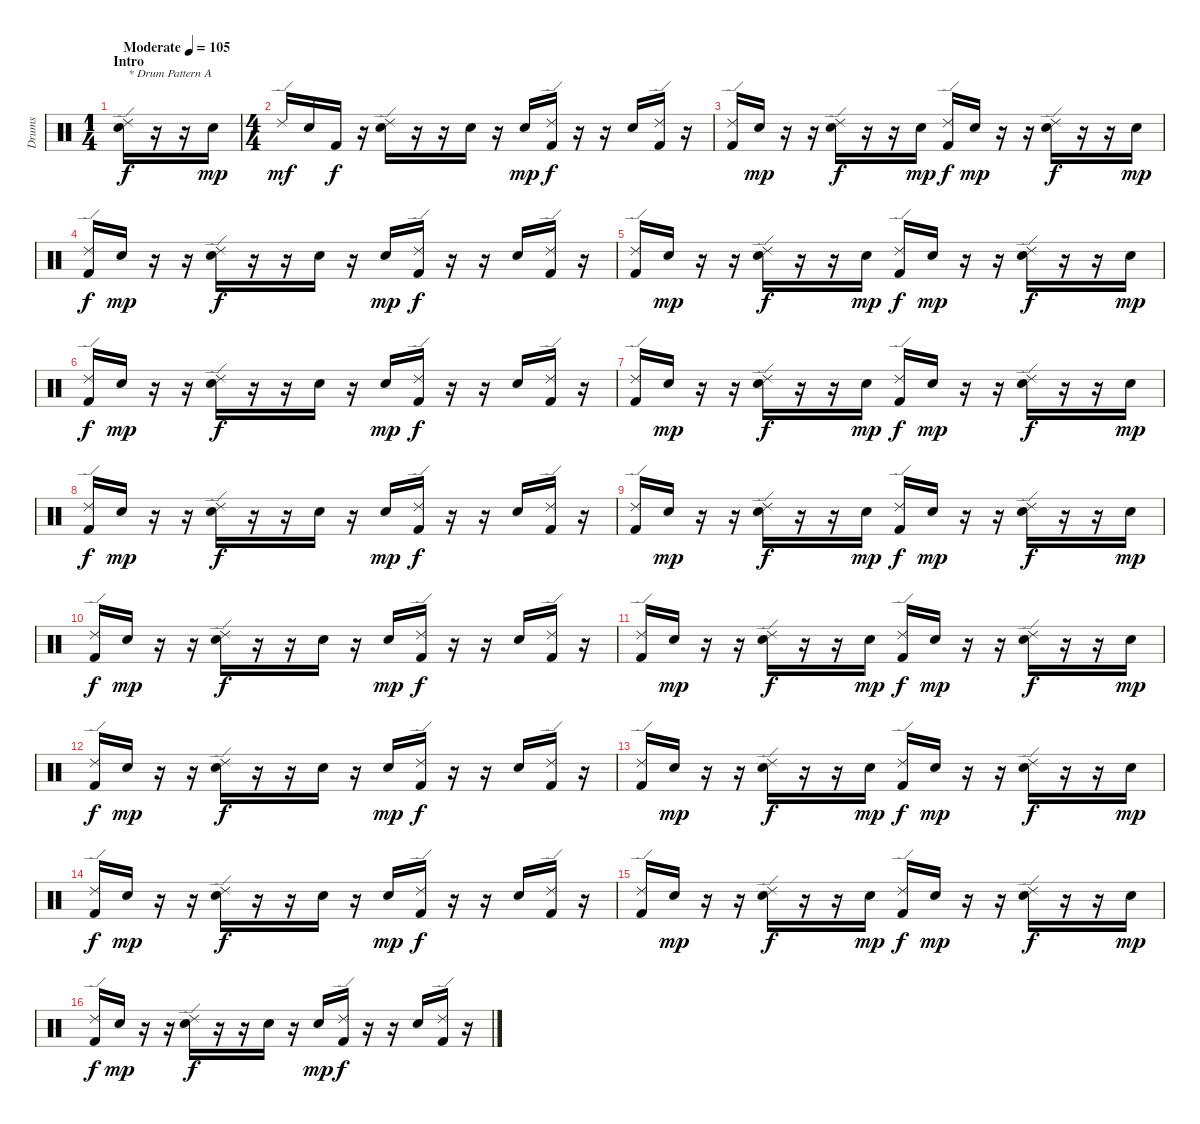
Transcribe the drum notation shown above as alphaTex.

\track ("Drums" "Drums") {instrument percussion}
\staff {score}
\articulation defaults
\ts (1 4)
\section ("" "Intro")
\tempo (105 "Moderate")
\clef neutral
\ks c
("Ride (edge) 2" "Electric Snare (hit)").16{txt "* Drum Pattern A" dy f balance 3} r.16 r.16 "Electric Snare (hit)".16{dy mp} |
\ts (4 4)
"Ride (edge) 2".16{dy mf} "Electric Snare (hit)".16 "Kick (hit) 2".16{dy f} r.16 ("Ride (edge) 2" "Electric Snare (hit)").16 r.16 r.16 "Electric Snare (hit)".16 r.16 "Electric Snare (hit)".16{dy mp} ("Ride (edge) 2" "Kick (hit) 2").16{dy f} r.16 r.16 "Electric Snare (hit)".16 ("Ride (edge) 2" "Kick (hit) 2").16 r.16 |
("Ride (edge) 2" "Kick (hit) 2").16 "Electric Snare (hit)".16{dy mp} r.16 r.16 ("Ride (edge) 2" "Electric Snare (hit)").16{dy f} r.16 r.16 "Electric Snare (hit)".16{dy mp} ("Ride (edge) 2" "Kick (hit) 2").16{dy f} "Electric Snare (hit)".16{dy mp} r.16 r.16 ("Ride (edge) 2" "Electric Snare (hit)").16{dy f} r.16 r.16 "Electric Snare (hit)".16{dy mp} |
("Ride (edge) 2" "Kick (hit) 2").16{dy f} "Electric Snare (hit)".16{dy mp} r.16 r.16 ("Ride (edge) 2" "Electric Snare (hit)").16{dy f} r.16 r.16 "Electric Snare (hit)".16 r.16 "Electric Snare (hit)".16{dy mp} ("Ride (edge) 2" "Kick (hit) 2").16{dy f} r.16 r.16 "Electric Snare (hit)".16 ("Ride (edge) 2" "Kick (hit) 2").16 r.16 |
("Ride (edge) 2" "Kick (hit) 2").16 "Electric Snare (hit)".16{dy mp} r.16 r.16 ("Ride (edge) 2" "Electric Snare (hit)").16{dy f} r.16 r.16 "Electric Snare (hit)".16{dy mp} ("Ride (edge) 2" "Kick (hit) 2").16{dy f} "Electric Snare (hit)".16{dy mp} r.16 r.16 ("Ride (edge) 2" "Electric Snare (hit)").16{dy f} r.16 r.16 "Electric Snare (hit)".16{dy mp} |
("Ride (edge) 2" "Kick (hit) 2").16{dy f} "Electric Snare (hit)".16{dy mp} r.16 r.16 ("Ride (edge) 2" "Electric Snare (hit)").16{dy f} r.16 r.16 "Electric Snare (hit)".16 r.16 "Electric Snare (hit)".16{dy mp} ("Ride (edge) 2" "Kick (hit) 2").16{dy f} r.16 r.16 "Electric Snare (hit)".16 ("Ride (edge) 2" "Kick (hit) 2").16 r.16 |
("Ride (edge) 2" "Kick (hit) 2").16 "Electric Snare (hit)".16{dy mp} r.16 r.16 ("Ride (edge) 2" "Electric Snare (hit)").16{dy f} r.16 r.16 "Electric Snare (hit)".16{dy mp} ("Ride (edge) 2" "Kick (hit) 2").16{dy f} "Electric Snare (hit)".16{dy mp} r.16 r.16 ("Ride (edge) 2" "Electric Snare (hit)").16{dy f} r.16 r.16 "Electric Snare (hit)".16{dy mp} |
("Ride (edge) 2" "Kick (hit) 2").16{dy f} "Electric Snare (hit)".16{dy mp} r.16 r.16 ("Ride (edge) 2" "Electric Snare (hit)").16{dy f} r.16 r.16 "Electric Snare (hit)".16 r.16 "Electric Snare (hit)".16{dy mp} ("Ride (edge) 2" "Kick (hit) 2").16{dy f} r.16 r.16 "Electric Snare (hit)".16 ("Ride (edge) 2" "Kick (hit) 2").16 r.16 |
("Ride (edge) 2" "Kick (hit) 2").16 "Electric Snare (hit)".16{dy mp} r.16 r.16 ("Ride (edge) 2" "Electric Snare (hit)").16{dy f} r.16 r.16 "Electric Snare (hit)".16{dy mp} ("Ride (edge) 2" "Kick (hit) 2").16{dy f} "Electric Snare (hit)".16{dy mp} r.16 r.16 ("Ride (edge) 2" "Electric Snare (hit)").16{dy f} r.16 r.16 "Electric Snare (hit)".16{dy mp} |
("Ride (edge) 2" "Kick (hit) 2").16{dy f} "Electric Snare (hit)".16{dy mp} r.16 r.16 ("Ride (edge) 2" "Electric Snare (hit)").16{dy f} r.16 r.16 "Electric Snare (hit)".16 r.16 "Electric Snare (hit)".16{dy mp} ("Ride (edge) 2" "Kick (hit) 2").16{dy f} r.16 r.16 "Electric Snare (hit)".16 ("Ride (edge) 2" "Kick (hit) 2").16 r.16 |
("Ride (edge) 2" "Kick (hit) 2").16 "Electric Snare (hit)".16{dy mp} r.16 r.16 ("Ride (edge) 2" "Electric Snare (hit)").16{dy f} r.16 r.16 "Electric Snare (hit)".16{dy mp} ("Ride (edge) 2" "Kick (hit) 2").16{dy f} "Electric Snare (hit)".16{dy mp} r.16 r.16 ("Ride (edge) 2" "Electric Snare (hit)").16{dy f} r.16 r.16 "Electric Snare (hit)".16{dy mp} |
("Ride (edge) 2" "Kick (hit) 2").16{dy f} "Electric Snare (hit)".16{dy mp} r.16 r.16 ("Ride (edge) 2" "Electric Snare (hit)").16{dy f} r.16 r.16 "Electric Snare (hit)".16 r.16 "Electric Snare (hit)".16{dy mp} ("Ride (edge) 2" "Kick (hit) 2").16{dy f} r.16 r.16 "Electric Snare (hit)".16 ("Ride (edge) 2" "Kick (hit) 2").16 r.16 |
("Ride (edge) 2" "Kick (hit) 2").16 "Electric Snare (hit)".16{dy mp} r.16 r.16 ("Ride (edge) 2" "Electric Snare (hit)").16{dy f} r.16 r.16 "Electric Snare (hit)".16{dy mp} ("Ride (edge) 2" "Kick (hit) 2").16{dy f} "Electric Snare (hit)".16{dy mp} r.16 r.16 ("Ride (edge) 2" "Electric Snare (hit)").16{dy f} r.16 r.16 "Electric Snare (hit)".16{dy mp} |
("Ride (edge) 2" "Kick (hit) 2").16{dy f} "Electric Snare (hit)".16{dy mp} r.16 r.16 ("Ride (edge) 2" "Electric Snare (hit)").16{dy f} r.16 r.16 "Electric Snare (hit)".16 r.16 "Electric Snare (hit)".16{dy mp} ("Ride (edge) 2" "Kick (hit) 2").16{dy f} r.16 r.16 "Electric Snare (hit)".16 ("Ride (edge) 2" "Kick (hit) 2").16 r.16 |
("Ride (edge) 2" "Kick (hit) 2").16 "Electric Snare (hit)".16{dy mp} r.16 r.16 ("Ride (edge) 2" "Electric Snare (hit)").16{dy f} r.16 r.16 "Electric Snare (hit)".16{dy mp} ("Ride (edge) 2" "Kick (hit) 2").16{dy f} "Electric Snare (hit)".16{dy mp} r.16 r.16 ("Ride (edge) 2" "Electric Snare (hit)").16{dy f} r.16 r.16 "Electric Snare (hit)".16{dy mp} |
("Ride (edge) 2" "Kick (hit) 2").16{dy f} "Electric Snare (hit)".16{dy mp} r.16 r.16 ("Ride (edge) 2" "Electric Snare (hit)").16{dy f} r.16 r.16 "Electric Snare (hit)".16 r.16 "Electric Snare (hit)".16{dy mp} ("Ride (edge) 2" "Kick (hit) 2").16{dy f} r.16 r.16 "Electric Snare (hit)".16 ("Ride (edge) 2" "Kick (hit) 2").16 r.16
